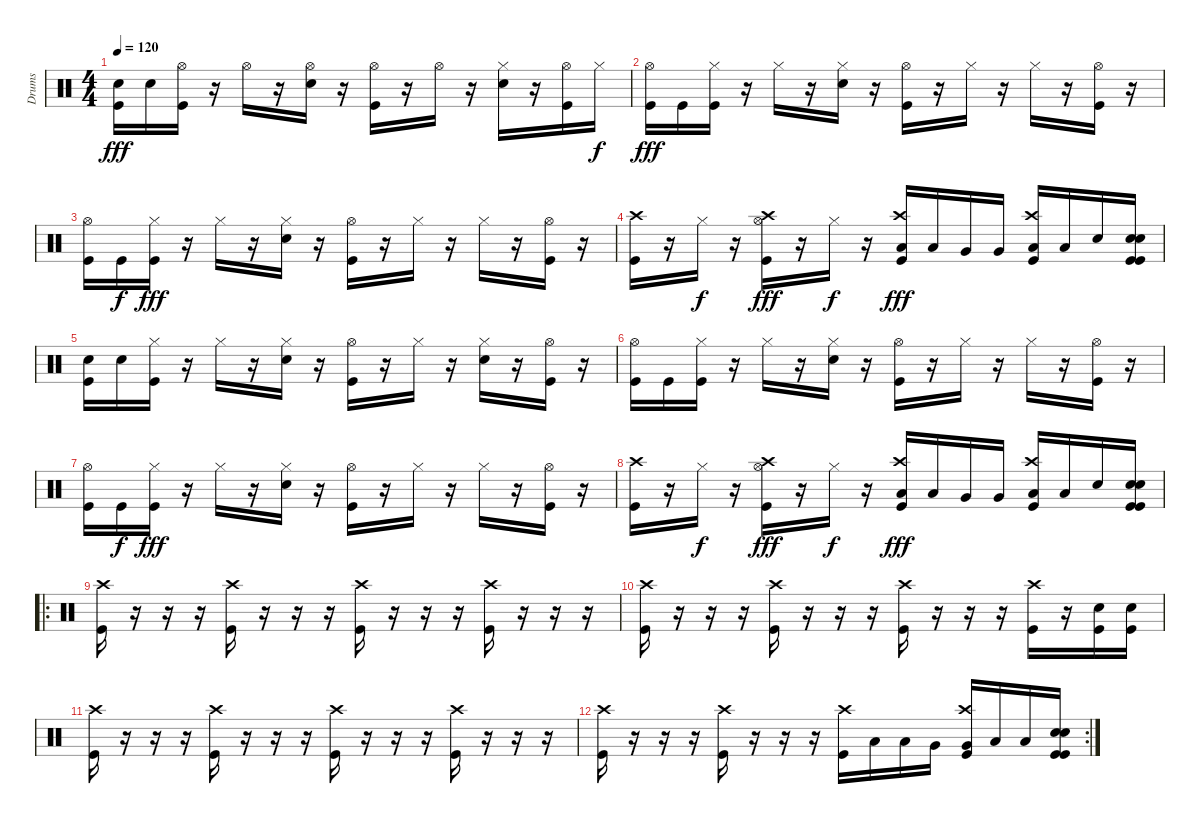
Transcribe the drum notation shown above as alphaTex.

\track ("Drums" "Drums") {instrument percussion}
\staff {score}
\articulation defaults
\ts (4 4)
\tempo 120
\clef neutral
\ks c
("Electric Snare (hit)" "Kick (hit)").16{dy fff} "Electric Snare (hit)".16 ("Hi-Hat (open)" "Kick (hit)").16 r.16 "Hi-Hat (open)".16 r.16 ("Hi-Hat (open)" "Electric Snare (hit)").16 r.16 ("Hi-Hat (open)" "Kick (hit)").16 r.16 "Hi-Hat (open)".16 r.16 ("Hi-Hat (closed)" "Electric Snare (hit)").16 r.16 ("Hi-Hat (open)" "Kick (hit)").16 "Hi-Hat (closed)".16{dy f} |
("Hi-Hat (open)" "Kick (hit)").16{dy fff} "Kick (hit)".16 ("Hi-Hat (closed)" "Kick (hit)").16 r.16 "Hi-Hat (closed)".16 r.16 ("Hi-Hat (closed)" "Electric Snare (hit)").16 r.16 ("Hi-Hat (open)" "Kick (hit)").16 r.16 "Hi-Hat (closed)".16 r.16 "Hi-Hat (closed)".16 r.16 ("Hi-Hat (open)" "Kick (hit)").16 r.16 |
("Hi-Hat (open)" "Kick (hit)").16 "Kick (hit)".16{dy f} ("Hi-Hat (closed)" "Kick (hit)").16{dy fff} r.16 "Hi-Hat (closed)".16 r.16 ("Hi-Hat (closed)" "Electric Snare (hit)").16 r.16 ("Hi-Hat (open)" "Kick (hit)").16 r.16 "Hi-Hat (closed)".16 r.16 "Hi-Hat (closed)".16 r.16 ("Hi-Hat (open)" "Kick (hit)").16 r.16 |
("Crash high (hit)" "Kick (hit)").16 r.16 "Hi-Hat (closed)".16{dy f} r.16 ("Crash high (hit)" "Hi-Hat (open)" "Kick (hit)").16{dy fff} r.16 "Hi-Hat (closed)".16{dy f} r.16 ("Crash high (hit)" "Low Tom (hit)" "Kick (hit)").16{dy fff} "Low Tom (hit)".16{balance 0} "Very Low Tom (hit)".16{balance 16} "Very Low Tom (hit)".16{balance 0} ("Crash high (hit)" "Low Floor Tom (hit)" "Kick (hit)").16{balance 16} "Low Floor Tom (hit)".16{balance 0} "Electric Snare (hit)".16{balance 16} ("Electric Snare (hit)" "Electric Snare (hit)" "Kick (hit)" "Kick (hit)").16{balance 8} |
("Electric Snare (hit)" "Kick (hit)").16 "Electric Snare (hit)".16 ("Hi-Hat (closed)" "Kick (hit)").16 r.16 "Hi-Hat (closed)".16 r.16 ("Hi-Hat (closed)" "Electric Snare (hit)").16 r.16 ("Hi-Hat (open)" "Kick (hit)").16 r.16 "Hi-Hat (closed)".16 r.16 ("Hi-Hat (closed)" "Electric Snare (hit)").16 r.16 ("Hi-Hat (open)" "Kick (hit)").16 r.16 |
("Hi-Hat (open)" "Kick (hit)").16 "Kick (hit)".16 ("Hi-Hat (closed)" "Kick (hit)").16 r.16 "Hi-Hat (closed)".16 r.16 ("Hi-Hat (closed)" "Electric Snare (hit)").16 r.16 ("Hi-Hat (open)" "Kick (hit)").16 r.16 "Hi-Hat (closed)".16 r.16 "Hi-Hat (closed)".16 r.16 ("Hi-Hat (open)" "Kick (hit)").16 r.16 |
("Hi-Hat (open)" "Kick (hit)").16 "Kick (hit)".16{dy f} ("Hi-Hat (closed)" "Kick (hit)").16{dy fff} r.16 "Hi-Hat (closed)".16 r.16 ("Hi-Hat (closed)" "Electric Snare (hit)").16 r.16 ("Hi-Hat (open)" "Kick (hit)").16 r.16 "Hi-Hat (closed)".16 r.16 "Hi-Hat (closed)".16 r.16 ("Hi-Hat (open)" "Kick (hit)").16 r.16 |
("Crash high (hit)" "Kick (hit)").16 r.16 "Hi-Hat (closed)".16{dy f} r.16 ("Crash high (hit)" "Hi-Hat (open)" "Kick (hit)").16{dy fff} r.16 "Hi-Hat (closed)".16{dy f} r.16 ("Crash high (hit)" "Low Tom (hit)" "Kick (hit)").16{dy fff} "Low Tom (hit)".16{balance 0} "Very Low Tom (hit)".16{balance 16} "Very Low Tom (hit)".16{balance 0} ("Crash high (hit)" "Low Floor Tom (hit)" "Kick (hit)").16{balance 16} "Low Floor Tom (hit)".16{balance 0} "Electric Snare (hit)".16{balance 16} ("Electric Snare (hit)" "Electric Snare (hit)" "Kick (hit)" "Kick (hit)").16{balance 8} |
\ro
("Crash high (hit)" "Kick (hit)").16 r.16 r.16 r.16 ("Crash high (hit)" "Kick (hit)").16 r.16 r.16 r.16 ("Crash high (hit)" "Kick (hit)").16 r.16 r.16 r.16 ("Crash high (hit)" "Kick (hit)").16 r.16 r.16 r.16 |
("Crash high (hit)" "Kick (hit)").16 r.16 r.16 r.16 ("Crash high (hit)" "Kick (hit)").16 r.16 r.16 r.16 ("Crash high (hit)" "Kick (hit)").16 r.16 r.16 r.16 ("Crash high (hit)" "Kick (hit)").16 r.16 ("Electric Snare (hit)" "Kick (hit)").16 ("Electric Snare (hit)" "Kick (hit)").16 |
("Crash high (hit)" "Kick (hit)").16 r.16 r.16 r.16 ("Crash high (hit)" "Kick (hit)").16 r.16 r.16 r.16 ("Crash high (hit)" "Kick (hit)").16 r.16 r.16 r.16 ("Crash high (hit)" "Kick (hit)").16 r.16 r.16 r.16 |
\rc 2
("Crash high (hit)" "Kick (hit)").16 r.16 r.16 r.16 ("Crash high (hit)" "Kick (hit)").16 r.16 r.16 r.16 ("Crash high (hit)" "Kick (hit)").16 "Low Tom (hit)".16{balance 0} "Low Tom (hit)".16{balance 16} "Very Low Tom (hit)".16{balance 0} ("Crash high (hit)" "Very Low Tom (hit)" "Kick (hit)").16{balance 16} "Low Floor Tom (hit)".16{balance 0} "Low Floor Tom (hit)".16{balance 16} ("Electric Snare (hit)" "Electric Snare (hit)" "Kick (hit)" "Kick (hit)").16{balance 8}
